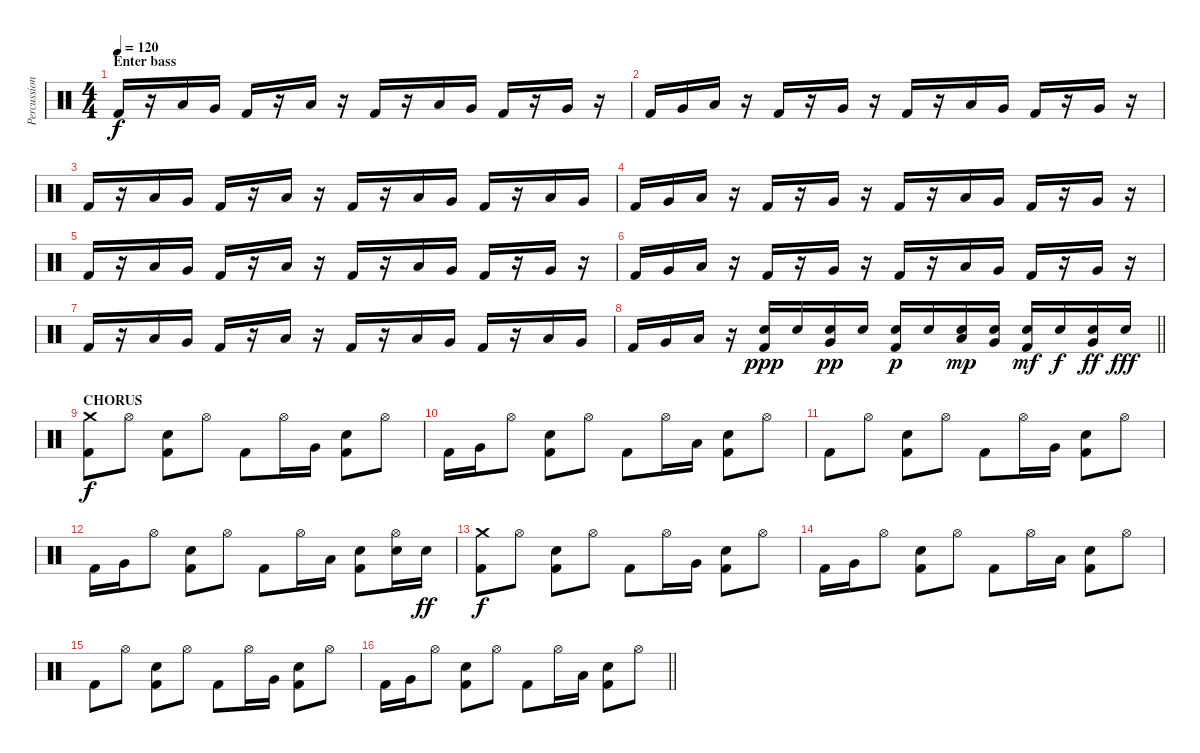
\track ("Percussion" "Percussion") {instrument percussion}
\staff {score}
\articulation defaults
\ts (4 4)
\section ("" "Enter bass")
\tempo 120
\clef neutral
\ks c "Kick (hit) 2".16{dy f}
r.16 "Low Tom (hit)".16 "Very Low Tom (hit)".16 "Kick (hit) 2".16 r.16 "Low Tom (hit)".16 r.16 "Kick (hit) 2".16 r.16 "Low Tom (hit)".16 "Very Low Tom (hit)".16 "Kick (hit) 2".16 r.16 "Very Low Tom (hit)".16 r.16 |
"Kick (hit) 2".16 "Very Low Tom (hit)".16 "Low Tom (hit)".16 r.16 "Kick (hit) 2".16 r.16 "Very Low Tom (hit)".16 r.16 "Kick (hit) 2".16 r.16 "Low Tom (hit)".16 "Very Low Tom (hit)".16 "Kick (hit) 2".16 r.16 "Very Low Tom (hit)".16 r.16 |
"Kick (hit) 2".16 r.16 "Low Tom (hit)".16 "Very Low Tom (hit)".16 "Kick (hit) 2".16 r.16 "Low Tom (hit)".16 r.16 "Kick (hit) 2".16 r.16 "Low Tom (hit)".16 "Very Low Tom (hit)".16 "Kick (hit) 2".16 r.16 "Low Tom (hit)".16 "Very Low Tom (hit)".16 |
"Kick (hit) 2".16 "Very Low Tom (hit)".16 "Low Tom (hit)".16 r.16 "Kick (hit) 2".16 r.16 "Very Low Tom (hit)".16 r.16 "Kick (hit) 2".16 r.16 "Low Tom (hit)".16 "Very Low Tom (hit)".16 "Kick (hit) 2".16 r.16 "Very Low Tom (hit)".16 r.16 |
"Kick (hit) 2".16 r.16 "Low Tom (hit)".16 "Very Low Tom (hit)".16 "Kick (hit) 2".16 r.16 "Low Tom (hit)".16 r.16 "Kick (hit) 2".16 r.16 "Low Tom (hit)".16 "Very Low Tom (hit)".16 "Kick (hit) 2".16 r.16 "Very Low Tom (hit)".16 r.16 |
"Kick (hit) 2".16 "Very Low Tom (hit)".16 "Low Tom (hit)".16 r.16 "Kick (hit) 2".16 r.16 "Very Low Tom (hit)".16 r.16 "Kick (hit) 2".16 r.16 "Low Tom (hit)".16 "Very Low Tom (hit)".16 "Kick (hit) 2".16 r.16 "Very Low Tom (hit)".16 r.16 |
"Kick (hit) 2".16 r.16 "Low Tom (hit)".16 "Very Low Tom (hit)".16 "Kick (hit) 2".16 r.16 "Low Tom (hit)".16 r.16 "Kick (hit) 2".16 r.16 "Low Tom (hit)".16 "Very Low Tom (hit)".16 "Kick (hit) 2".16 r.16 "Low Tom (hit)".16 "Very Low Tom (hit)".16 |
\barLineRight lightlight "Kick (hit) 2".16 "Very Low Tom (hit)".16 "Low Tom (hit)".16
r.16 ("Electric Snare (hit)" "Kick (hit) 2").16{dy ppp} "Electric Snare (hit)".16 ("Electric Snare (hit)" "Very Low Tom (hit)").16{dy pp} "Electric Snare (hit)".16 ("Electric Snare (hit)" "Kick (hit) 2").16{dy p} "Electric Snare (hit)".16 ("Electric Snare (hit)" "Low Tom (hit)").16{dy mp} ("Electric Snare (hit)" "Very Low Tom (hit)").16 ("Electric Snare (hit)" "Kick (hit) 2").16{dy mf} "Electric Snare (hit)".16{dy f} ("Electric Snare (hit)" "Very Low Tom (hit)").16{dy ff} "Electric Snare (hit)".16{dy fff} |
\section ("" "CHORUS")
("Crash medium (hit)" "Kick (hit) 2").8{dy f} "Hi-Hat (open)".8 ("Electric Snare (hit)" "Kick (hit) 2").8 "Hi-Hat (open)".8 "Kick (hit) 2".8 "Hi-Hat (open)".16 "Very Low Tom (hit)".16 ("Electric Snare (hit)" "Kick (hit) 2").8 "Hi-Hat (open)".8 |
"Kick (hit) 2".16 "Very Low Tom (hit)".16 "Hi-Hat (open)".8 ("Electric Snare (hit)" "Kick (hit) 2").8 "Hi-Hat (open)".8 "Kick (hit) 2".8 "Hi-Hat (open)".16 "Low Tom (hit)".16 ("Electric Snare (hit)" "Kick (hit) 2").8 "Hi-Hat (open)".8 |
"Kick (hit) 2".8 "Hi-Hat (open)".8 ("Electric Snare (hit)" "Kick (hit) 2").8 "Hi-Hat (open)".8 "Kick (hit) 2".8 "Hi-Hat (open)".16 "Very Low Tom (hit)".16 ("Electric Snare (hit)" "Kick (hit) 2").8 "Hi-Hat (open)".8 |
"Kick (hit) 2".16 "Very Low Tom (hit)".16 "Hi-Hat (open)".8 ("Electric Snare (hit)" "Kick (hit) 2").8 "Hi-Hat (open)".8 "Kick (hit) 2".8 "Hi-Hat (open)".16 "Low Tom (hit)".16 ("Electric Snare (hit)" "Kick (hit) 2").8 ("Hi-Hat (open)" "Electric Snare (hit)").16 "Electric Snare (hit)".16{dy ff} |
("Crash medium (hit)" "Kick (hit) 2").8{dy f} "Hi-Hat (open)".8 ("Electric Snare (hit)" "Kick (hit) 2").8 "Hi-Hat (open)".8 "Kick (hit) 2".8 "Hi-Hat (open)".16 "Very Low Tom (hit)".16 ("Electric Snare (hit)" "Kick (hit) 2").8 "Hi-Hat (open)".8 |
"Kick (hit) 2".16 "Very Low Tom (hit)".16 "Hi-Hat (open)".8 ("Electric Snare (hit)" "Kick (hit) 2").8 "Hi-Hat (open)".8 "Kick (hit) 2".8 "Hi-Hat (open)".16 "Low Tom (hit)".16 ("Electric Snare (hit)" "Kick (hit) 2").8 "Hi-Hat (open)".8 |
"Kick (hit) 2".8 "Hi-Hat (open)".8 ("Electric Snare (hit)" "Kick (hit) 2").8 "Hi-Hat (open)".8 "Kick (hit) 2".8 "Hi-Hat (open)".16 "Very Low Tom (hit)".16 ("Electric Snare (hit)" "Kick (hit) 2").8 "Hi-Hat (open)".8 |
\barLineRight lightlight "Kick (hit) 2".16 "Very Low Tom (hit)".16 "Hi-Hat (open)".8
("Electric Snare (hit)" "Kick (hit) 2").8 "Hi-Hat (open)".8 "Kick (hit) 2".8 "Hi-Hat (open)".16 "Low Tom (hit)".16 ("Electric Snare (hit)" "Kick (hit) 2").8 "Hi-Hat (open)".8
